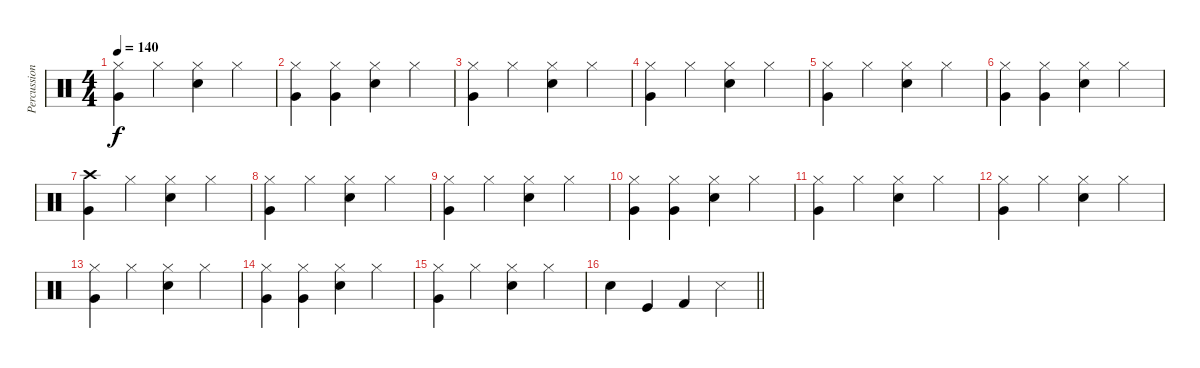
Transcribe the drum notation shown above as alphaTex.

\track ("Percussion" "Percussion") {instrument percussion}
\staff {score}
\articulation defaults
\ts (4 4)
\tempo 140
\clef neutral
\ks c
("Hi-Hat (closed)" "Very Low Tom (hit)").4{dy f} "Hi-Hat (closed)".4 ("Hi-Hat (closed)" "Electric Snare (hit)").4 "Hi-Hat (closed)".4 |
("Hi-Hat (closed)" "Very Low Tom (hit)").4 ("Hi-Hat (closed)" "Very Low Tom (hit)").4 ("Hi-Hat (closed)" "Electric Snare (hit)").4 "Hi-Hat (closed)".4 |
("Hi-Hat (closed)" "Very Low Tom (hit)").4 "Hi-Hat (closed)".4 ("Hi-Hat (closed)" "Electric Snare (hit)").4 "Hi-Hat (closed)".4 |
("Hi-Hat (closed)" "Very Low Tom (hit)").4 "Hi-Hat (closed)".4 ("Hi-Hat (closed)" "Electric Snare (hit)").4 "Hi-Hat (closed)".4 |
("Hi-Hat (closed)" "Very Low Tom (hit)").4 "Hi-Hat (closed)".4 ("Hi-Hat (closed)" "Electric Snare (hit)").4 "Hi-Hat (closed)".4 |
("Hi-Hat (closed)" "Very Low Tom (hit)").4 ("Hi-Hat (closed)" "Very Low Tom (hit)").4 ("Hi-Hat (closed)" "Electric Snare (hit)").4 "Hi-Hat (closed)".4 |
("Crash high (hit)" "Very Low Tom (hit)").4 "Hi-Hat (closed)".4 ("Hi-Hat (closed)" "Electric Snare (hit)").4 "Hi-Hat (closed)".4 |
("Hi-Hat (closed)" "Very Low Tom (hit)").4 "Hi-Hat (closed)".4 ("Hi-Hat (closed)" "Electric Snare (hit)").4 "Hi-Hat (closed)".4 |
("Hi-Hat (closed)" "Very Low Tom (hit)").4 "Hi-Hat (closed)".4 ("Hi-Hat (closed)" "Electric Snare (hit)").4 "Hi-Hat (closed)".4 |
("Hi-Hat (closed)" "Very Low Tom (hit)").4 ("Hi-Hat (closed)" "Very Low Tom (hit)").4 ("Hi-Hat (closed)" "Electric Snare (hit)").4 "Hi-Hat (closed)".4 |
("Hi-Hat (closed)" "Very Low Tom (hit)").4 "Hi-Hat (closed)".4 ("Hi-Hat (closed)" "Electric Snare (hit)").4 "Hi-Hat (closed)".4 |
("Hi-Hat (closed)" "Very Low Tom (hit)").4 "Hi-Hat (closed)".4 ("Hi-Hat (closed)" "Electric Snare (hit)").4 "Hi-Hat (closed)".4 |
("Hi-Hat (closed)" "Very Low Tom (hit)").4 "Hi-Hat (closed)".4 ("Hi-Hat (closed)" "Electric Snare (hit)").4 "Hi-Hat (closed)".4 |
("Hi-Hat (closed)" "Very Low Tom (hit)").4 ("Hi-Hat (closed)" "Very Low Tom (hit)").4 ("Hi-Hat (closed)" "Electric Snare (hit)").4 "Hi-Hat (closed)".4 |
("Hi-Hat (closed)" "Very Low Tom (hit)").4 "Hi-Hat (closed)".4 ("Hi-Hat (closed)" "Electric Snare (hit)").4 "Hi-Hat (closed)".4 |
\barLineRight lightlight "Electric Snare (hit)".4 "Kick (hit)".4 "Kick (hit) 2".4 "Metronome (hit)".4
